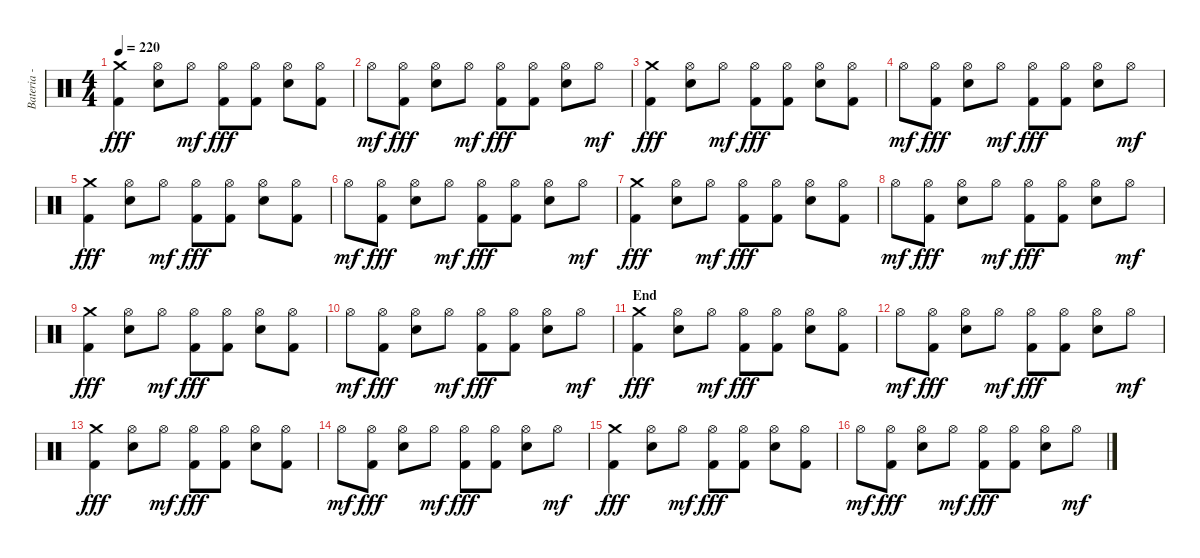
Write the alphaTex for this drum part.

\track ("Bateria - Larzon" "Bateria - ") {instrument percussion}
\staff {score}
\articulation defaults
\ts (4 4)
\tempo 220
\clef neutral
\ks c
("Crash medium (hit)" "Kick (hit) 2").4{dy fff} ("Hi-Hat (open)" "Electric Snare (hit)").8 "Hi-Hat (open)".8{dy mf} ("Hi-Hat (open)" "Kick (hit) 2").8{dy fff} ("Hi-Hat (open)" "Kick (hit) 2").8 ("Hi-Hat (open)" "Electric Snare (hit)").8 ("Hi-Hat (open)" "Kick (hit) 2").8 |
"Hi-Hat (open)".8{dy mf} ("Hi-Hat (open)" "Kick (hit) 2").8{dy fff} ("Hi-Hat (open)" "Electric Snare (hit)").8 "Hi-Hat (open)".8{dy mf} ("Hi-Hat (open)" "Kick (hit) 2").8{dy fff} ("Hi-Hat (open)" "Kick (hit) 2").8 ("Hi-Hat (open)" "Electric Snare (hit)").8 "Hi-Hat (open)".8{dy mf} |
("Crash medium (hit)" "Kick (hit) 2").4{dy fff} ("Hi-Hat (open)" "Electric Snare (hit)").8 "Hi-Hat (open)".8{dy mf} ("Hi-Hat (open)" "Kick (hit) 2").8{dy fff} ("Hi-Hat (open)" "Kick (hit) 2").8 ("Hi-Hat (open)" "Electric Snare (hit)").8 ("Hi-Hat (open)" "Kick (hit) 2").8 |
"Hi-Hat (open)".8{dy mf} ("Hi-Hat (open)" "Kick (hit) 2").8{dy fff} ("Hi-Hat (open)" "Electric Snare (hit)").8 "Hi-Hat (open)".8{dy mf} ("Hi-Hat (open)" "Kick (hit) 2").8{dy fff} ("Hi-Hat (open)" "Kick (hit) 2").8 ("Hi-Hat (open)" "Electric Snare (hit)").8 "Hi-Hat (open)".8{dy mf} |
("Crash medium (hit)" "Kick (hit) 2").4{dy fff} ("Hi-Hat (open)" "Electric Snare (hit)").8 "Hi-Hat (open)".8{dy mf} ("Hi-Hat (open)" "Kick (hit) 2").8{dy fff} ("Hi-Hat (open)" "Kick (hit) 2").8 ("Hi-Hat (open)" "Electric Snare (hit)").8 ("Hi-Hat (open)" "Kick (hit) 2").8 |
"Hi-Hat (open)".8{dy mf} ("Hi-Hat (open)" "Kick (hit) 2").8{dy fff} ("Hi-Hat (open)" "Electric Snare (hit)").8 "Hi-Hat (open)".8{dy mf} ("Hi-Hat (open)" "Kick (hit) 2").8{dy fff} ("Hi-Hat (open)" "Kick (hit) 2").8 ("Hi-Hat (open)" "Electric Snare (hit)").8 "Hi-Hat (open)".8{dy mf} |
("Crash medium (hit)" "Kick (hit) 2").4{dy fff} ("Hi-Hat (open)" "Electric Snare (hit)").8 "Hi-Hat (open)".8{dy mf} ("Hi-Hat (open)" "Kick (hit) 2").8{dy fff} ("Hi-Hat (open)" "Kick (hit) 2").8 ("Hi-Hat (open)" "Electric Snare (hit)").8 ("Hi-Hat (open)" "Kick (hit) 2").8 |
"Hi-Hat (open)".8{dy mf} ("Hi-Hat (open)" "Kick (hit) 2").8{dy fff} ("Hi-Hat (open)" "Electric Snare (hit)").8 "Hi-Hat (open)".8{dy mf} ("Hi-Hat (open)" "Kick (hit) 2").8{dy fff} ("Hi-Hat (open)" "Kick (hit) 2").8 ("Hi-Hat (open)" "Electric Snare (hit)").8 "Hi-Hat (open)".8{dy mf} |
("Crash medium (hit)" "Kick (hit) 2").4{dy fff} ("Hi-Hat (open)" "Electric Snare (hit)").8 "Hi-Hat (open)".8{dy mf} ("Hi-Hat (open)" "Kick (hit) 2").8{dy fff} ("Hi-Hat (open)" "Kick (hit) 2").8 ("Hi-Hat (open)" "Electric Snare (hit)").8 ("Hi-Hat (open)" "Kick (hit) 2").8 |
"Hi-Hat (open)".8{dy mf} ("Hi-Hat (open)" "Kick (hit) 2").8{dy fff} ("Hi-Hat (open)" "Electric Snare (hit)").8 "Hi-Hat (open)".8{dy mf} ("Hi-Hat (open)" "Kick (hit) 2").8{dy fff} ("Hi-Hat (open)" "Kick (hit) 2").8 ("Hi-Hat (open)" "Electric Snare (hit)").8 "Hi-Hat (open)".8{dy mf} |
\section ("" "End")
("Crash medium (hit)" "Kick (hit) 2").4{dy fff} ("Hi-Hat (open)" "Electric Snare (hit)").8 "Hi-Hat (open)".8{dy mf} ("Hi-Hat (open)" "Kick (hit) 2").8{dy fff} ("Hi-Hat (open)" "Kick (hit) 2").8 ("Hi-Hat (open)" "Electric Snare (hit)").8 ("Hi-Hat (open)" "Kick (hit) 2").8 |
"Hi-Hat (open)".8{dy mf} ("Hi-Hat (open)" "Kick (hit) 2").8{dy fff} ("Hi-Hat (open)" "Electric Snare (hit)").8 "Hi-Hat (open)".8{dy mf} ("Hi-Hat (open)" "Kick (hit) 2").8{dy fff} ("Hi-Hat (open)" "Kick (hit) 2").8 ("Hi-Hat (open)" "Electric Snare (hit)").8 "Hi-Hat (open)".8{dy mf} |
("Crash medium (hit)" "Kick (hit) 2").4{dy fff} ("Hi-Hat (open)" "Electric Snare (hit)").8 "Hi-Hat (open)".8{dy mf} ("Hi-Hat (open)" "Kick (hit) 2").8{dy fff} ("Hi-Hat (open)" "Kick (hit) 2").8 ("Hi-Hat (open)" "Electric Snare (hit)").8 ("Hi-Hat (open)" "Kick (hit) 2").8 |
"Hi-Hat (open)".8{dy mf} ("Hi-Hat (open)" "Kick (hit) 2").8{dy fff} ("Hi-Hat (open)" "Electric Snare (hit)").8 "Hi-Hat (open)".8{dy mf} ("Hi-Hat (open)" "Kick (hit) 2").8{dy fff} ("Hi-Hat (open)" "Kick (hit) 2").8 ("Hi-Hat (open)" "Electric Snare (hit)").8 "Hi-Hat (open)".8{dy mf} |
("Crash medium (hit)" "Kick (hit) 2").4{dy fff} ("Hi-Hat (open)" "Electric Snare (hit)").8 "Hi-Hat (open)".8{dy mf} ("Hi-Hat (open)" "Kick (hit) 2").8{dy fff} ("Hi-Hat (open)" "Kick (hit) 2").8 ("Hi-Hat (open)" "Electric Snare (hit)").8 ("Hi-Hat (open)" "Kick (hit) 2").8 |
"Hi-Hat (open)".8{dy mf} ("Hi-Hat (open)" "Kick (hit) 2").8{dy fff} ("Hi-Hat (open)" "Electric Snare (hit)").8 "Hi-Hat (open)".8{dy mf} ("Hi-Hat (open)" "Kick (hit) 2").8{dy fff} ("Hi-Hat (open)" "Kick (hit) 2").8 ("Hi-Hat (open)" "Electric Snare (hit)").8 "Hi-Hat (open)".8{dy mf}
